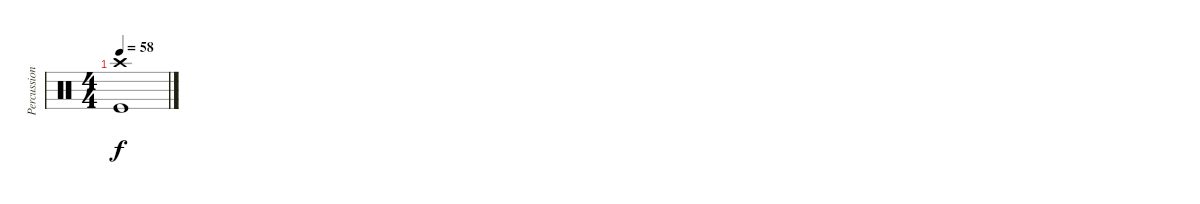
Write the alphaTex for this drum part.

\track ("Percussion" "Percussion") {instrument percussion}
\staff {score}
\articulation defaults
\ts (4 4)
\tempo 58
\clef neutral
\ks c
("Crash high (hit)" "Kick (hit)").1{dy f}
